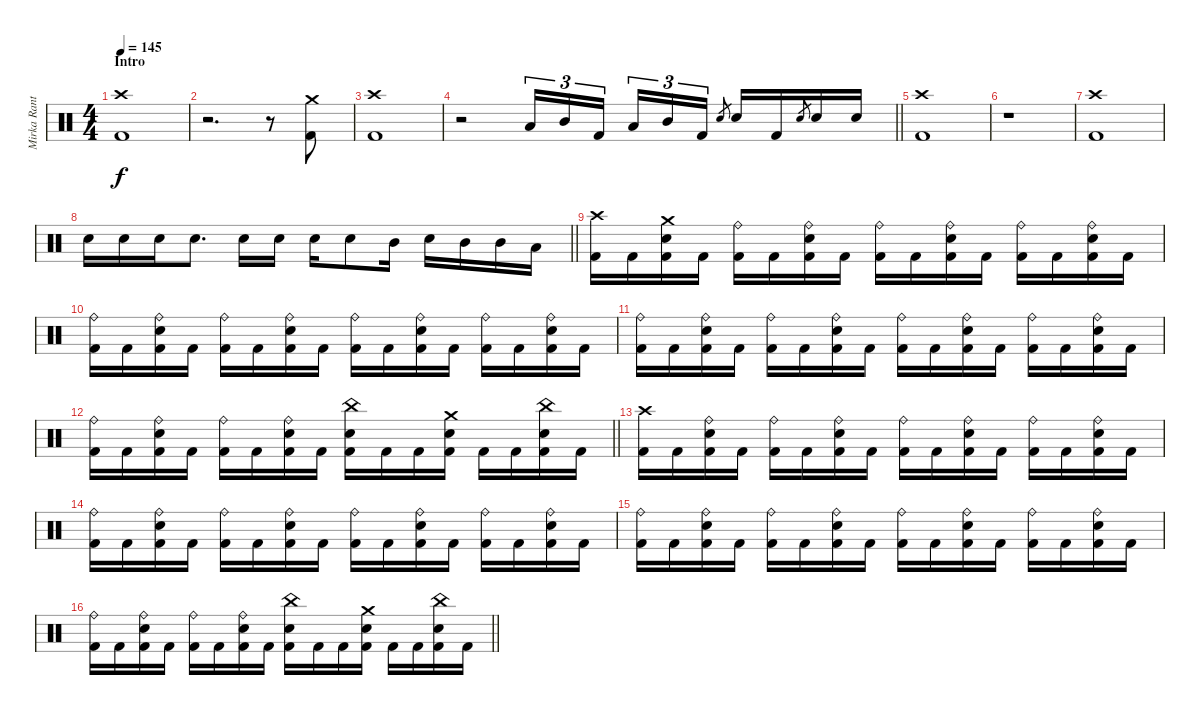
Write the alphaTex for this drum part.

\track ("Mirka Rantanen" "Mirka Rant") {instrument percussion}
\staff {score}
\articulation defaults
\ts (4 4)
\section ("" "Intro")
\tempo 145
\clef neutral
\ks c
("Crash high (hit)" "Kick (hit) 2").1{dy f} |
r.2{d} r.8 ("Crash medium (hit)" "Kick (hit) 2").8 |
("Crash high (hit)" "Kick (hit) 2").1 |
\barLineRight lightlight
r.2 "Low Tom (hit)".16{tu (3 2)} "Mid Tom (hit)".16{tu (3 2)} "Kick (hit) 2".16{tu (3 2) beam splitsecondary} "Low Tom (hit)".16{tu (3 2)} "Mid Tom (hit)".16{tu (3 2)} "Kick (hit) 2".16{tu (3 2)} "Electric Snare (hit)".8{gr} "Electric Snare (hit)".16 "Kick (hit) 2".16 "Electric Snare (hit)".8{gr} "Electric Snare (hit)".16 "Electric Snare (hit)".16 |
("Crash high (hit)" "Kick (hit) 2").1 |
r.1 |
("Crash high (hit)" "Kick (hit) 2").1 |
\barLineRight lightlight "Electric Snare (hit)".16 "Electric Snare (hit)".16 "Electric Snare (hit)".16 "Electric Snare (hit)".8{d} "Electric Snare (hit)".16 "Electric Snare (hit)".16 "Electric Snare (hit)".16 "Electric Snare (hit)".8 "Mid Tom (hit)".16 "Electric Snare (hit)".16 "Mid Tom (hit)".16 "Mid Tom (hit)".16 "Low Tom (hit)".16
|
("Crash high (hit)" "Kick (hit) 2").16 "Kick (hit) 2".16 ("Crash medium (hit)" "Electric Snare (hit)" "Kick (hit) 2").16 "Kick (hit) 2".16 ("Ride (bell)" "Kick (hit) 2").16 "Kick (hit) 2".16 ("Ride (bell)" "Electric Snare (hit)" "Kick (hit) 2").16 "Kick (hit) 2".16 ("Ride (bell)" "Kick (hit) 2").16 "Kick (hit) 2".16 ("Ride (bell)" "Electric Snare (hit)" "Kick (hit) 2").16 "Kick (hit) 2".16 ("Ride (bell)" "Kick (hit) 2").16 "Kick (hit) 2".16 ("Ride (bell)" "Electric Snare (hit)" "Kick (hit) 2").16 "Kick (hit) 2".16 |
("Ride (bell)" "Kick (hit) 2").16 "Kick (hit) 2".16 ("Ride (bell)" "Electric Snare (hit)" "Kick (hit) 2").16 "Kick (hit) 2".16 ("Ride (bell)" "Kick (hit) 2").16 "Kick (hit) 2".16 ("Ride (bell)" "Electric Snare (hit)" "Kick (hit) 2").16 "Kick (hit) 2".16 ("Ride (bell)" "Kick (hit) 2").16 "Kick (hit) 2".16 ("Ride (bell)" "Electric Snare (hit)" "Kick (hit) 2").16 "Kick (hit) 2".16 ("Ride (bell)" "Kick (hit) 2").16 "Kick (hit) 2".16 ("Ride (bell)" "Electric Snare (hit)" "Kick (hit) 2").16 "Kick (hit) 2".16 |
("Ride (bell)" "Kick (hit) 2").16 "Kick (hit) 2".16 ("Ride (bell)" "Electric Snare (hit)" "Kick (hit) 2").16 "Kick (hit) 2".16 ("Ride (bell)" "Kick (hit) 2").16 "Kick (hit) 2".16 ("Ride (bell)" "Electric Snare (hit)" "Kick (hit) 2").16 "Kick (hit) 2".16 ("Ride (bell)" "Kick (hit) 2").16 "Kick (hit) 2".16 ("Ride (bell)" "Electric Snare (hit)" "Kick (hit) 2").16 "Kick (hit) 2".16 ("Ride (bell)" "Kick (hit) 2").16 "Kick (hit) 2".16 ("Ride (bell)" "Electric Snare (hit)" "Kick (hit) 2").16 "Kick (hit) 2".16 |
\barLineRight lightlight
("Ride (bell)" "Kick (hit) 2").16 "Kick (hit) 2".16 ("Ride (bell)" "Electric Snare (hit)" "Kick (hit) 2").16 "Kick (hit) 2".16 ("Ride (bell)" "Kick (hit) 2").16 "Kick (hit) 2".16 ("Ride (bell)" "Electric Snare (hit)" "Kick (hit) 2").16 "Kick (hit) 2".16 ("China (hit)" "Electric Snare (hit)" "Kick (hit) 2").16 "Kick (hit) 2".16 "Kick (hit) 2".16 ("Crash medium (hit)" "Electric Snare (hit)" "Kick (hit) 2").16 "Kick (hit) 2".16 "Kick (hit) 2".16 ("China (hit)" "Electric Snare (hit)" "Kick (hit) 2").16 "Kick (hit) 2".16 |
("Crash high (hit)" "Kick (hit) 2").16 "Kick (hit) 2".16 ("Ride (bell)" "Electric Snare (hit)" "Kick (hit) 2").16 "Kick (hit) 2".16 ("Ride (bell)" "Kick (hit) 2").16 "Kick (hit) 2".16 ("Ride (bell)" "Electric Snare (hit)" "Kick (hit) 2").16 "Kick (hit) 2".16 ("Ride (bell)" "Kick (hit) 2").16 "Kick (hit) 2".16 ("Ride (bell)" "Electric Snare (hit)" "Kick (hit) 2").16 "Kick (hit) 2".16 ("Ride (bell)" "Kick (hit) 2").16 "Kick (hit) 2".16 ("Ride (bell)" "Electric Snare (hit)" "Kick (hit) 2").16 "Kick (hit) 2".16 |
("Ride (bell)" "Kick (hit) 2").16 "Kick (hit) 2".16 ("Ride (bell)" "Electric Snare (hit)" "Kick (hit) 2").16 "Kick (hit) 2".16 ("Ride (bell)" "Kick (hit) 2").16 "Kick (hit) 2".16 ("Ride (bell)" "Electric Snare (hit)" "Kick (hit) 2").16 "Kick (hit) 2".16 ("Ride (bell)" "Kick (hit) 2").16 "Kick (hit) 2".16 ("Ride (bell)" "Electric Snare (hit)" "Kick (hit) 2").16 "Kick (hit) 2".16 ("Ride (bell)" "Kick (hit) 2").16 "Kick (hit) 2".16 ("Ride (bell)" "Electric Snare (hit)" "Kick (hit) 2").16 "Kick (hit) 2".16 |
("Ride (bell)" "Kick (hit) 2").16 "Kick (hit) 2".16 ("Ride (bell)" "Electric Snare (hit)" "Kick (hit) 2").16 "Kick (hit) 2".16 ("Ride (bell)" "Kick (hit) 2").16 "Kick (hit) 2".16 ("Ride (bell)" "Electric Snare (hit)" "Kick (hit) 2").16 "Kick (hit) 2".16 ("Ride (bell)" "Kick (hit) 2").16 "Kick (hit) 2".16 ("Ride (bell)" "Electric Snare (hit)" "Kick (hit) 2").16 "Kick (hit) 2".16 ("Ride (bell)" "Kick (hit) 2").16 "Kick (hit) 2".16 ("Ride (bell)" "Electric Snare (hit)" "Kick (hit) 2").16 "Kick (hit) 2".16 |
\barLineRight lightlight
("Ride (bell)" "Kick (hit) 2").16 "Kick (hit) 2".16 ("Ride (bell)" "Electric Snare (hit)" "Kick (hit) 2").16 "Kick (hit) 2".16 ("Ride (bell)" "Kick (hit) 2").16 "Kick (hit) 2".16 ("Ride (bell)" "Electric Snare (hit)" "Kick (hit) 2").16 "Kick (hit) 2".16 ("China (hit)" "Electric Snare (hit)" "Kick (hit) 2").16 "Kick (hit) 2".16 "Kick (hit) 2".16 ("Crash medium (hit)" "Electric Snare (hit)" "Kick (hit) 2").16 "Kick (hit) 2".16 "Kick (hit) 2".16 ("China (hit)" "Electric Snare (hit)" "Kick (hit) 2").16 "Kick (hit) 2".16
